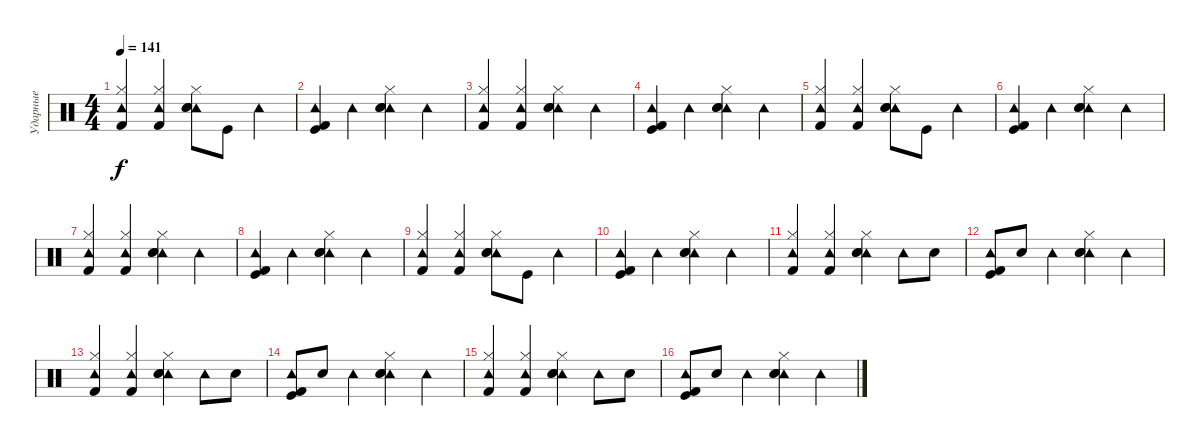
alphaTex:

\track ("Ударные" "Ударные") {instrument percussion}
\staff {score}
\articulation defaults
\ts (4 4)
\tempo 141
\clef neutral
\ks c
("Kick (hit) 2" "Hi-Hat (closed)" "Tambourine (hit)").4{dy f} ("Kick (hit) 2" "Hi-Hat (closed)" "Tambourine (hit)").4 ("Tambourine (hit)" "Electric Snare (hit)" "Snare (hit) 2" "Hi-Hat (closed)").8 "Kick (hit)".8 "Tambourine (hit)".4 |
("Tambourine (hit)" "Kick (hit)" "Kick (hit) 2").4 "Tambourine (hit)".4 ("Tambourine (hit)" "Electric Snare (hit)" "Snare (hit) 2" "Hi-Hat (closed)").4 "Tambourine (hit)".4 |
("Kick (hit) 2" "Hi-Hat (closed)" "Tambourine (hit)").4 ("Kick (hit) 2" "Hi-Hat (closed)" "Tambourine (hit)").4 ("Tambourine (hit)" "Electric Snare (hit)" "Snare (hit) 2" "Hi-Hat (closed)").4 "Tambourine (hit)".4 |
("Tambourine (hit)" "Kick (hit)" "Kick (hit) 2").4 "Tambourine (hit)".4 ("Tambourine (hit)" "Electric Snare (hit)" "Snare (hit) 2" "Hi-Hat (closed)").4 "Tambourine (hit)".4 |
("Kick (hit) 2" "Hi-Hat (closed)" "Tambourine (hit)").4 ("Kick (hit) 2" "Hi-Hat (closed)" "Tambourine (hit)").4 ("Tambourine (hit)" "Electric Snare (hit)" "Snare (hit) 2" "Hi-Hat (closed)").8 "Kick (hit)".8 "Tambourine (hit)".4 |
("Tambourine (hit)" "Kick (hit)" "Kick (hit) 2").4 "Tambourine (hit)".4 ("Tambourine (hit)" "Electric Snare (hit)" "Snare (hit) 2" "Hi-Hat (closed)").4 "Tambourine (hit)".4 |
("Kick (hit) 2" "Hi-Hat (closed)" "Tambourine (hit)").4 ("Kick (hit) 2" "Hi-Hat (closed)" "Tambourine (hit)").4 ("Tambourine (hit)" "Electric Snare (hit)" "Snare (hit) 2" "Hi-Hat (closed)").4 "Tambourine (hit)".4 |
("Tambourine (hit)" "Kick (hit)" "Kick (hit) 2").4 "Tambourine (hit)".4 ("Tambourine (hit)" "Electric Snare (hit)" "Snare (hit) 2" "Hi-Hat (closed)").4 "Tambourine (hit)".4 |
("Kick (hit) 2" "Hi-Hat (closed)" "Tambourine (hit)").4 ("Kick (hit) 2" "Hi-Hat (closed)" "Tambourine (hit)").4 ("Tambourine (hit)" "Electric Snare (hit)" "Snare (hit) 2" "Hi-Hat (closed)").8 "Kick (hit)".8 "Tambourine (hit)".4 |
("Tambourine (hit)" "Kick (hit)" "Kick (hit) 2").4 "Tambourine (hit)".4 ("Tambourine (hit)" "Electric Snare (hit)" "Snare (hit) 2" "Hi-Hat (closed)").4 "Tambourine (hit)".4 |
("Kick (hit) 2" "Hi-Hat (closed)" "Tambourine (hit)").4 ("Kick (hit) 2" "Hi-Hat (closed)" "Tambourine (hit)").4 ("Tambourine (hit)" "Electric Snare (hit)" "Snare (hit) 2" "Hi-Hat (closed)").4 "Tambourine (hit)".8 "Electric Snare (hit)".8 |
("Tambourine (hit)" "Kick (hit)" "Kick (hit) 2").8 "Electric Snare (hit)".8 "Tambourine (hit)".4 ("Tambourine (hit)" "Electric Snare (hit)" "Snare (hit) 2" "Hi-Hat (closed)").4 "Tambourine (hit)".4 |
("Kick (hit) 2" "Hi-Hat (closed)" "Tambourine (hit)").4 ("Kick (hit) 2" "Hi-Hat (closed)" "Tambourine (hit)").4 ("Tambourine (hit)" "Electric Snare (hit)" "Snare (hit) 2" "Hi-Hat (closed)").4 "Tambourine (hit)".8 "Electric Snare (hit)".8 |
("Tambourine (hit)" "Kick (hit)" "Kick (hit) 2").8 "Electric Snare (hit)".8 "Tambourine (hit)".4 ("Tambourine (hit)" "Electric Snare (hit)" "Snare (hit) 2" "Hi-Hat (closed)").4 "Tambourine (hit)".4 |
("Kick (hit) 2" "Hi-Hat (closed)" "Tambourine (hit)").4 ("Kick (hit) 2" "Hi-Hat (closed)" "Tambourine (hit)").4 ("Tambourine (hit)" "Electric Snare (hit)" "Snare (hit) 2" "Hi-Hat (closed)").4 "Tambourine (hit)".8 "Electric Snare (hit)".8 |
("Tambourine (hit)" "Kick (hit)" "Kick (hit) 2").8 "Electric Snare (hit)".8 "Tambourine (hit)".4 ("Tambourine (hit)" "Electric Snare (hit)" "Snare (hit) 2" "Hi-Hat (closed)").4 "Tambourine (hit)".4
